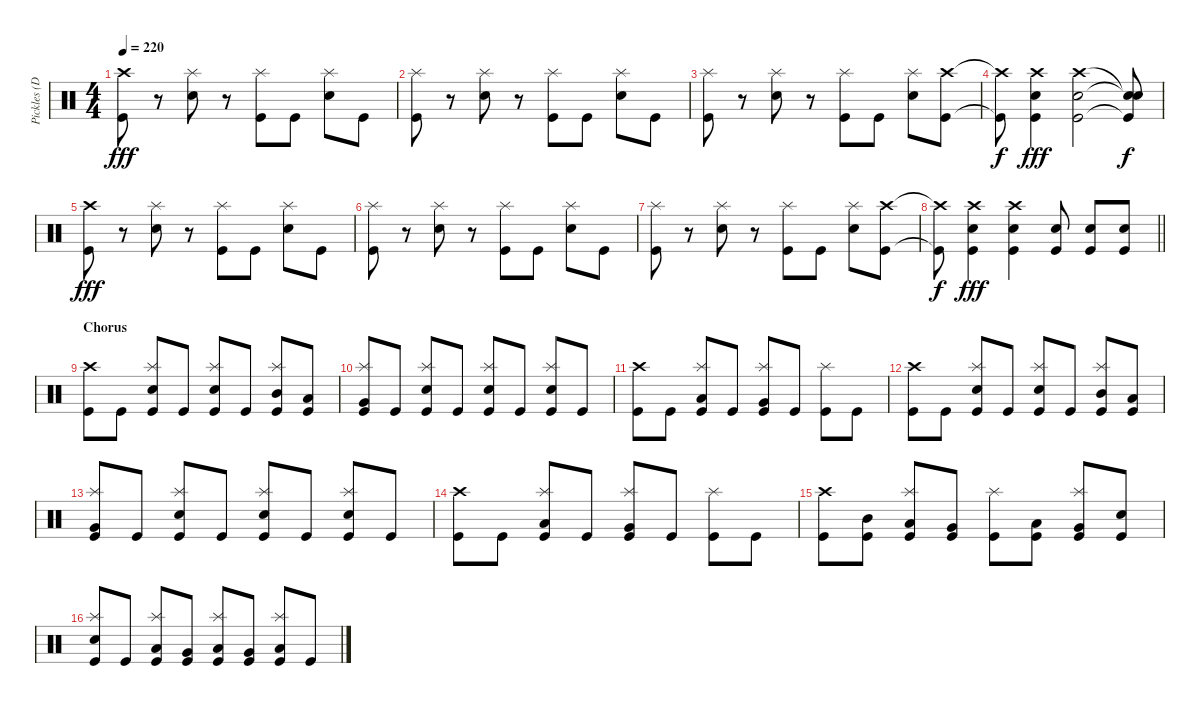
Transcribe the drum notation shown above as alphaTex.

\track ("Pickles (Drums)" "Pickles (D") {instrument percussion}
\staff {score}
\articulation defaults
\ts (4 4)
\tempo 220
\clef neutral
\ks c
("Crash high (hit)" "Kick (hit)").8{dy fff} r.8 ("Splash (hit)" "Electric Snare (hit)").8 r.8 ("Splash (hit)" "Kick (hit)").8 "Kick (hit)".8 ("Splash (hit)" "Electric Snare (hit)").8 "Kick (hit)".8 |
("Splash (hit)" "Kick (hit)").8 r.8 ("Splash (hit)" "Electric Snare (hit)").8 r.8 ("Splash (hit)" "Kick (hit)").8 "Kick (hit)".8 ("Splash (hit)" "Electric Snare (hit)").8 "Kick (hit)".8 |
("Splash (hit)" "Kick (hit)").8 r.8 ("Splash (hit)" "Electric Snare (hit)").8 r.8 ("Splash (hit)" "Kick (hit)").8 "Kick (hit)".8 ("Splash (hit)" "Electric Snare (hit)").8 ("Crash high (hit)" "Kick (hit)").8 |
("Crash high (hit)"{t} "Kick (hit)"{t}).8{dy f} ("Crash high (hit)" "Electric Snare (hit)" "Kick (hit)").4{dy fff} ("Crash high (hit)" "Electric Snare (hit)" "Kick (hit)").2 ("Snare (hit)"{t} "Electric Snare (hit)"{t} "Kick (hit)"{t}).8{dy f} |
("Crash high (hit)" "Kick (hit)").8{dy fff} r.8 ("Splash (hit)" "Electric Snare (hit)").8 r.8 ("Splash (hit)" "Kick (hit)").8 "Kick (hit)".8 ("Splash (hit)" "Electric Snare (hit)").8 "Kick (hit)".8 |
("Splash (hit)" "Kick (hit)").8 r.8 ("Splash (hit)" "Electric Snare (hit)").8 r.8 ("Splash (hit)" "Kick (hit)").8 "Kick (hit)".8 ("Splash (hit)" "Electric Snare (hit)").8 "Kick (hit)".8 |
("Splash (hit)" "Kick (hit)").8 r.8 ("Splash (hit)" "Electric Snare (hit)").8 r.8 ("Splash (hit)" "Kick (hit)").8 "Kick (hit)".8 ("Splash (hit)" "Electric Snare (hit)").8 ("Crash high (hit)" "Kick (hit)").8 |
\barLineRight lightlight
("Crash high (hit)"{t} "Kick (hit)"{t}).8{dy f} ("Crash high (hit)" "Electric Snare (hit)" "Kick (hit)").4{dy fff} ("Crash high (hit)" "Electric Snare (hit)" "Kick (hit)").4 ("Electric Snare (hit)" "Kick (hit)").8 ("Electric Snare (hit)" "Kick (hit)").8 ("Electric Snare (hit)" "Kick (hit)").8 |
\section ("" "Chorus")
("Crash high (hit)" "Kick (hit)").8 "Kick (hit)".8 ("Splash (hit)" "Electric Snare (hit)" "Kick (hit)").8 "Kick (hit)".8 ("Splash (hit)" "Electric Snare (hit)" "Kick (hit)").8 "Kick (hit)".8 ("Splash (hit)" "Mid Tom (hit)" "Kick (hit)").8 ("Low Tom (hit)" "Kick (hit)").8 |
("Splash (hit)" "Very Low Tom (hit)" "Kick (hit)").8 "Kick (hit)".8 ("Splash (hit)" "Electric Snare (hit)" "Kick (hit)").8 "Kick (hit)".8 ("Splash (hit)" "Electric Snare (hit)" "Kick (hit)").8 "Kick (hit)".8 ("Splash (hit)" "Electric Snare (hit)" "Kick (hit)").8 "Kick (hit)".8 |
("Crash high (hit)" "Kick (hit)").8 "Kick (hit)".8 ("Splash (hit)" "Low Tom (hit)" "Kick (hit)").8 "Kick (hit)".8 ("Splash (hit)" "Very Low Tom (hit)" "Kick (hit)").8 "Kick (hit)".8 ("Splash (hit)" "Kick (hit)").8 "Kick (hit)".8 |
("Crash high (hit)" "Kick (hit)").8 "Kick (hit)".8 ("Splash (hit)" "Electric Snare (hit)" "Kick (hit)").8 "Kick (hit)".8 ("Splash (hit)" "Electric Snare (hit)" "Kick (hit)").8 "Kick (hit)".8 ("Splash (hit)" "Mid Tom (hit)" "Kick (hit)").8 ("Low Tom (hit)" "Kick (hit)").8 |
("Splash (hit)" "Very Low Tom (hit)" "Kick (hit)").8 "Kick (hit)".8 ("Splash (hit)" "Electric Snare (hit)" "Kick (hit)").8 "Kick (hit)".8 ("Splash (hit)" "Electric Snare (hit)" "Kick (hit)").8 "Kick (hit)".8 ("Splash (hit)" "Electric Snare (hit)" "Kick (hit)").8 "Kick (hit)".8 |
("Crash high (hit)" "Kick (hit)").8 "Kick (hit)".8 ("Splash (hit)" "Low Tom (hit)" "Kick (hit)").8 "Kick (hit)".8 ("Splash (hit)" "Very Low Tom (hit)" "Kick (hit)").8 "Kick (hit)".8 ("Splash (hit)" "Kick (hit)").8 "Kick (hit)".8 |
("Crash high (hit)" "Kick (hit)").8 ("Mid Tom (hit)" "Kick (hit)").8 ("Splash (hit)" "Low Tom (hit)" "Kick (hit)").8 ("Very Low Tom (hit)" "Kick (hit)").8 ("Splash (hit)" "Kick (hit)").8 ("Low Tom (hit)" "Kick (hit)").8 ("Splash (hit)" "Very Low Tom (hit)" "Kick (hit)").8 ("Electric Snare (hit)" "Kick (hit)").8 |
("Splash (hit)" "Electric Snare (hit)" "Kick (hit)").8 "Kick (hit)".8 ("Splash (hit)" "Low Tom (hit)" "Kick (hit)").8 ("Very Low Tom (hit)" "Kick (hit)").8 ("Splash (hit)" "Low Floor Tom (hit)" "Kick (hit)").8 ("Very Low Tom (hit)" "Kick (hit)").8 ("Splash (hit)" "Low Floor Tom (hit)" "Kick (hit)").8 "Kick (hit)".8
